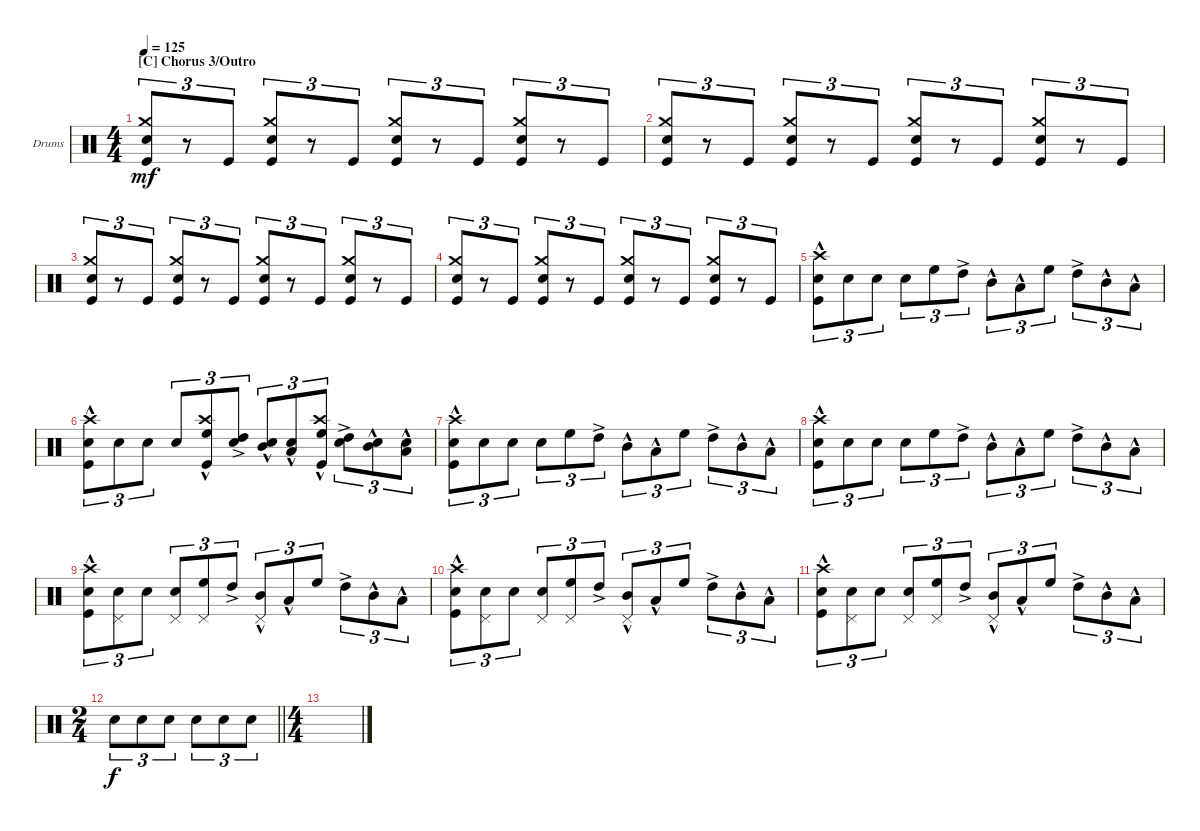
\defaultSystemsLayout 4
\bracketExtendMode groupsimilarinstruments
\firstSystemTrackNameOrientation horizontal
\otherSystemsTrackNameOrientation horizontal
\track ("Drumkit" "Drums") {instrument percussion}
\staff {score}
\articulation defaults
\ts (4 4)
\section ("C" "Chorus 3/Outro")
\tempo 125
\clef neutral
\ks c
("Kick (hit)" "Crash medium (hit)" "Snare (hit) 2").8{tu (3 2) dy mf} r.8{tu (3 2)} "Kick (hit)".8{tu (3 2)} ("Kick (hit)" "Snare (hit) 2" "Crash medium (hit)").8{tu (3 2)} r.8{tu (3 2)} "Kick (hit)".8{tu (3 2)} ("Kick (hit)" "Snare (hit) 2" "Crash medium (hit)").8{tu (3 2)} r.8{tu (3 2)} "Kick (hit)".8{tu (3 2)} ("Kick (hit)" "Crash medium (hit)" "Snare (hit) 2").8{tu (3 2)} r.8{tu (3 2)} "Kick (hit)".8{tu (3 2)} |
("Kick (hit)" "Crash medium (hit)" "Snare (hit) 2").8{tu (3 2)} r.8{tu (3 2)} "Kick (hit)".8{tu (3 2)} ("Kick (hit)" "Snare (hit) 2" "Crash medium (hit)").8{tu (3 2)} r.8{tu (3 2)} "Kick (hit)".8{tu (3 2)} ("Kick (hit)" "Snare (hit) 2" "Crash medium (hit)").8{tu (3 2)} r.8{tu (3 2)} "Kick (hit)".8{tu (3 2)} ("Kick (hit)" "Crash medium (hit)" "Snare (hit) 2").8{tu (3 2)} r.8{tu (3 2)} "Kick (hit)".8{tu (3 2)} |
("Kick (hit)" "Crash medium (hit)" "Snare (hit) 2").8{tu (3 2)} r.8{tu (3 2)} "Kick (hit)".8{tu (3 2)} ("Kick (hit)" "Snare (hit) 2" "Crash medium (hit)").8{tu (3 2)} r.8{tu (3 2)} "Kick (hit)".8{tu (3 2)} ("Kick (hit)" "Snare (hit) 2" "Crash medium (hit)").8{tu (3 2)} r.8{tu (3 2)} "Kick (hit)".8{tu (3 2)} ("Kick (hit)" "Crash medium (hit)" "Snare (hit) 2").8{tu (3 2)} r.8{tu (3 2)} "Kick (hit)".8{tu (3 2)} |
("Kick (hit)" "Crash medium (hit)" "Snare (hit) 2").8{tu (3 2)} r.8{tu (3 2)} "Kick (hit)".8{tu (3 2)} ("Kick (hit)" "Snare (hit) 2" "Crash medium (hit)").8{tu (3 2)} r.8{tu (3 2)} "Kick (hit)".8{tu (3 2)} ("Kick (hit)" "Snare (hit) 2" "Crash medium (hit)").8{tu (3 2)} r.8{tu (3 2)} "Kick (hit)".8{tu (3 2)} ("Kick (hit)" "Crash medium (hit)" "Snare (hit) 2").8{tu (3 2)} r.8{tu (3 2)} "Kick (hit)".8{tu (3 2)} |
("Kick (hit)"{hac} "Snare (hit) 2" "Crash high (hit)").8{tu (3 2)} "Snare (hit) 2".8{tu (3 2)} "Snare (hit) 2".8{tu (3 2)} "Snare (hit) 2".8{tu (3 2)} "High Floor Tom (hit)".8{tu (3 2)} "High Tom (hit)"{ac}.8{tu (3 2)} "Mid Tom (hit)"{hac}.8{tu (3 2)} "Low Tom (hit)"{hac}.8{tu (3 2)} "High Floor Tom (hit)".8{tu (3 2)} "High Tom (hit)"{ac}.8{tu (3 2)} "Mid Tom (hit)"{hac}.8{tu (3 2)} "Low Tom (hit)"{hac}.8{tu (3 2)} |
("Kick (hit)"{hac} "Snare (hit) 2" "Crash high (hit)").8{tu (3 2)} "Snare (hit) 2".8{tu (3 2)} "Snare (hit) 2".8{tu (3 2)} "Snare (hit) 2".8{tu (3 2)} ("High Floor Tom (hit)" "Kick (hit)"{hac} "Crash high (hit)").8{tu (3 2)} ("High Tom (hit)"{ac} "Snare (hit) 2").8{tu (3 2)} ("Mid Tom (hit)"{hac} "Snare (hit) 2").8{tu (3 2)} ("Low Tom (hit)"{hac} "Snare (hit) 2").8{tu (3 2)} ("High Floor Tom (hit)" "Kick (hit)"{hac} "Crash high (hit)").8{tu (3 2)} ("High Tom (hit)"{ac} "Snare (hit) 2").8{tu (3 2)} ("Mid Tom (hit)"{hac} "Snare (hit) 2").8{tu (3 2)} ("Low Tom (hit)"{hac} "Snare (hit) 2").8{tu (3 2)} |
("Kick (hit)"{hac} "Snare (hit) 2" "Crash high (hit)").8{tu (3 2)} "Snare (hit) 2".8{tu (3 2)} "Snare (hit) 2".8{tu (3 2)} "Snare (hit) 2".8{tu (3 2)} "High Floor Tom (hit)".8{tu (3 2)} "High Tom (hit)"{ac}.8{tu (3 2)} "Mid Tom (hit)"{hac}.8{tu (3 2)} "Low Tom (hit)"{hac}.8{tu (3 2)} "High Floor Tom (hit)".8{tu (3 2)} "High Tom (hit)"{ac}.8{tu (3 2)} "Mid Tom (hit)"{hac}.8{tu (3 2)} "Low Tom (hit)"{hac}.8{tu (3 2)} |
("Kick (hit)"{hac} "Snare (hit) 2" "Crash high (hit)").8{tu (3 2)} "Snare (hit) 2".8{tu (3 2)} "Snare (hit) 2".8{tu (3 2)} "Snare (hit) 2".8{tu (3 2)} "High Floor Tom (hit)".8{tu (3 2)} "High Tom (hit)"{ac}.8{tu (3 2)} "Mid Tom (hit)"{hac}.8{tu (3 2)} "Low Tom (hit)"{hac}.8{tu (3 2)} "High Floor Tom (hit)".8{tu (3 2)} "High Tom (hit)"{ac}.8{tu (3 2)} "Mid Tom (hit)"{hac}.8{tu (3 2)} "Low Tom (hit)"{hac}.8{tu (3 2)} |
("Kick (hit)"{hac} "Snare (hit) 2" "Crash high (hit)").8{tu (3 2)} ("Snare (hit) 2" "Pedal Hi-Hat (hit)").8{tu (3 2)} "Snare (hit) 2".8{tu (3 2)} ("Snare (hit) 2" "Pedal Hi-Hat (hit)").8{tu (3 2)} ("High Floor Tom (hit)" "Pedal Hi-Hat (hit)").8{tu (3 2)} "High Tom (hit)"{ac}.8{tu (3 2)} ("Mid Tom (hit)"{hac} "Pedal Hi-Hat (hit)").8{tu (3 2)} "Low Tom (hit)"{hac}.8{tu (3 2)} "High Floor Tom (hit)".8{tu (3 2)} "High Tom (hit)"{ac}.8{tu (3 2)} "Mid Tom (hit)"{hac}.8{tu (3 2)} "Low Tom (hit)"{hac}.8{tu (3 2)} |
("Kick (hit)"{hac} "Snare (hit) 2" "Crash high (hit)").8{tu (3 2)} ("Snare (hit) 2" "Pedal Hi-Hat (hit)").8{tu (3 2)} "Snare (hit) 2".8{tu (3 2)} ("Snare (hit) 2" "Pedal Hi-Hat (hit)").8{tu (3 2)} ("High Floor Tom (hit)" "Pedal Hi-Hat (hit)").8{tu (3 2)} "High Tom (hit)"{ac}.8{tu (3 2)} ("Mid Tom (hit)"{hac} "Pedal Hi-Hat (hit)").8{tu (3 2)} "Low Tom (hit)"{hac}.8{tu (3 2)} "High Floor Tom (hit)".8{tu (3 2)} "High Tom (hit)"{ac}.8{tu (3 2)} "Mid Tom (hit)"{hac}.8{tu (3 2)} "Low Tom (hit)"{hac}.8{tu (3 2)} |
("Kick (hit)"{hac} "Snare (hit) 2" "Crash high (hit)").8{tu (3 2)} ("Snare (hit) 2" "Pedal Hi-Hat (hit)").8{tu (3 2)} "Snare (hit) 2".8{tu (3 2)} ("Snare (hit) 2" "Pedal Hi-Hat (hit)").8{tu (3 2)} ("High Floor Tom (hit)" "Pedal Hi-Hat (hit)").8{tu (3 2)} "High Tom (hit)"{ac}.8{tu (3 2)} ("Mid Tom (hit)"{hac} "Pedal Hi-Hat (hit)").8{tu (3 2)} "Low Tom (hit)"{hac}.8{tu (3 2)} "High Floor Tom (hit)".8{tu (3 2)} "High Tom (hit)"{ac}.8{tu (3 2)} "Mid Tom (hit)"{hac}.8{tu (3 2)} "Low Tom (hit)"{hac}.8{tu (3 2)} |
\ts (2 4)
\barLineRight lightlight "Snare (hit) 2".8{tu (3 2) dy f} "Snare (hit) 2".8{tu (3 2)} "Snare (hit) 2".8{tu (3 2)} "Snare (hit) 2".8{tu (3 2)} "Snare (hit) 2".8{tu (3 2)} "Snare (hit) 2".8{tu (3 2)}
|
\ts (4 4)
